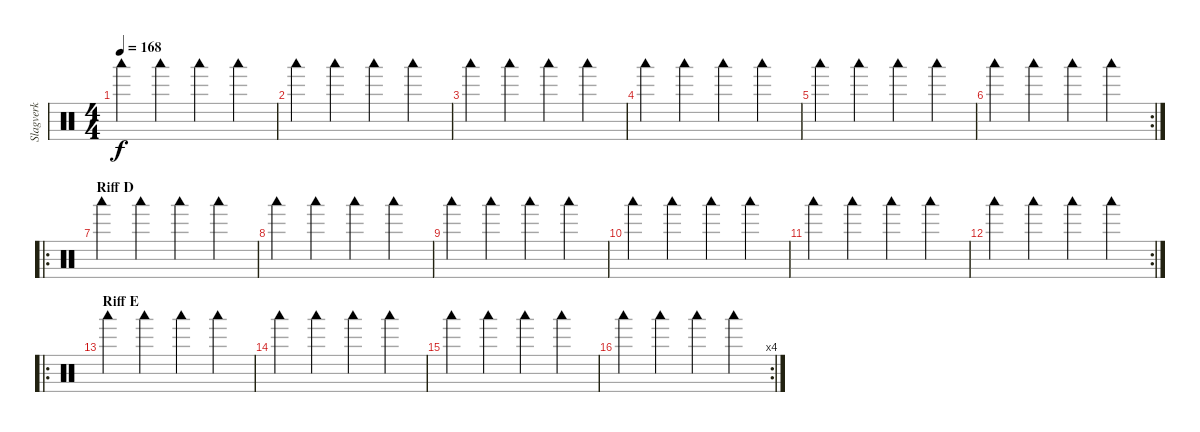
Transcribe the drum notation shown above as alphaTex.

\track ("Slagverk" "Slagverk") {instrument percussion}
\staff {score}
\articulation defaults
\ts (4 4)
\tempo 168
\clef neutral
\ks c "Woodblock low (hit)".4{dy f} "Woodblock low (hit)".4 "Woodblock low (hit)".4 "Woodblock low (hit)".4
|
"Woodblock low (hit)".4 "Woodblock low (hit)".4 "Woodblock low (hit)".4 "Woodblock low (hit)".4 |
"Woodblock low (hit)".4 "Woodblock low (hit)".4 "Woodblock low (hit)".4 "Woodblock low (hit)".4 |
"Woodblock low (hit)".4 "Woodblock low (hit)".4 "Woodblock low (hit)".4 "Woodblock low (hit)".4 |
"Woodblock low (hit)".4 "Woodblock low (hit)".4 "Woodblock low (hit)".4 "Woodblock low (hit)".4 |
\rc 2 "Woodblock low (hit)".4 "Woodblock low (hit)".4 "Woodblock low (hit)".4 "Woodblock low (hit)".4
|
\ro
\section ("" "Riff D")
"Woodblock low (hit)".4 "Woodblock low (hit)".4 "Woodblock low (hit)".4 "Woodblock low (hit)".4 |
"Woodblock low (hit)".4 "Woodblock low (hit)".4 "Woodblock low (hit)".4 "Woodblock low (hit)".4 |
"Woodblock low (hit)".4 "Woodblock low (hit)".4 "Woodblock low (hit)".4 "Woodblock low (hit)".4 |
"Woodblock low (hit)".4 "Woodblock low (hit)".4 "Woodblock low (hit)".4 "Woodblock low (hit)".4 |
"Woodblock low (hit)".4 "Woodblock low (hit)".4 "Woodblock low (hit)".4 "Woodblock low (hit)".4 |
\rc 2 "Woodblock low (hit)".4 "Woodblock low (hit)".4 "Woodblock low (hit)".4 "Woodblock low (hit)".4
|
\ro
\section ("" "Riff E")
"Woodblock low (hit)".4 "Woodblock low (hit)".4 "Woodblock low (hit)".4 "Woodblock low (hit)".4 |
"Woodblock low (hit)".4 "Woodblock low (hit)".4 "Woodblock low (hit)".4 "Woodblock low (hit)".4 |
"Woodblock low (hit)".4 "Woodblock low (hit)".4 "Woodblock low (hit)".4 "Woodblock low (hit)".4 |
\rc 4 "Woodblock low (hit)".4 "Woodblock low (hit)".4 "Woodblock low (hit)".4 "Woodblock low (hit)".4
